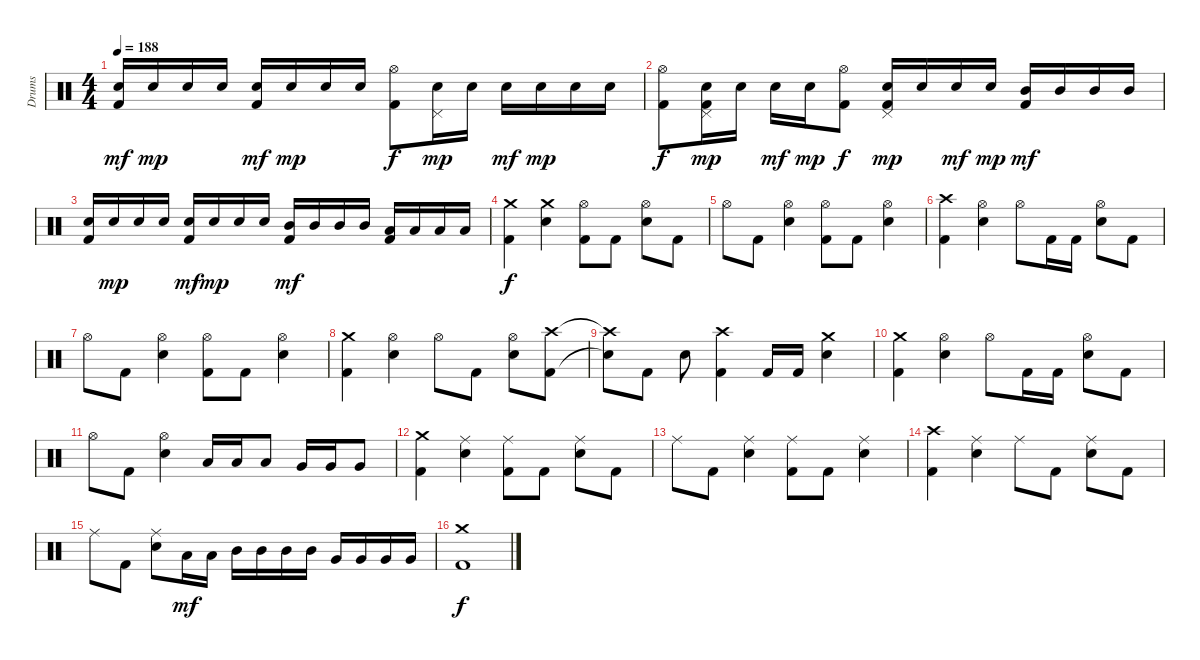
\track ("Drums" "Drums") {instrument percussion}
\staff {score}
\articulation defaults
\ts (4 4)
\tempo 188
\clef neutral
\ks c
("Electric Snare (hit)" "Kick (hit) 2").16{dy mf} "Electric Snare (hit)".16{dy mp} "Electric Snare (hit)".16 "Electric Snare (hit)".16 ("Electric Snare (hit)" "Kick (hit) 2").16{dy mf} "Electric Snare (hit)".16{dy mp} "Electric Snare (hit)".16 "Electric Snare (hit)".16 ("Hi-Hat (open)" "Kick (hit) 2").8{dy f} ("Pedal Hi-Hat (hit)" "Electric Snare (hit)").16{dy mp} "Electric Snare (hit)".16 "Electric Snare (hit)".16{dy mf} "Electric Snare (hit)".16{dy mp} "Electric Snare (hit)".16 "Electric Snare (hit)".16 |
("Hi-Hat (open)" "Kick (hit) 2").8{dy f} ("Pedal Hi-Hat (hit)" "Electric Snare (hit)" "Kick (hit) 2").16{dy mp} "Electric Snare (hit)".16 "Electric Snare (hit)".16{dy mf} "Electric Snare (hit)".16{dy mp} ("Hi-Hat (open)" "Kick (hit) 2").8{dy f} ("Pedal Hi-Hat (hit)" "Electric Snare (hit)" "Kick (hit) 2").16{dy mp} "Electric Snare (hit)".16 "Electric Snare (hit)".16{dy mf} "Electric Snare (hit)".16{dy mp} ("Mid Tom (hit)" "Kick (hit) 2").16{dy mf} "Mid Tom (hit)".16 "Mid Tom (hit)".16 "Mid Tom (hit)".16 |
("Electric Snare (hit)" "Kick (hit) 2").16 "Electric Snare (hit)".16{dy mp} "Electric Snare (hit)".16 "Electric Snare (hit)".16 ("Electric Snare (hit)" "Kick (hit) 2").16{dy mf} "Electric Snare (hit)".16{dy mp} "Electric Snare (hit)".16 "Electric Snare (hit)".16 ("Mid Tom (hit)" "Kick (hit) 2").16{dy mf} "Mid Tom (hit)".16 "Mid Tom (hit)".16 "Mid Tom (hit)".16 ("Low Tom (hit)" "Kick (hit) 2").16 "Low Tom (hit)".16 "Low Tom (hit)".16 "Low Tom (hit)".16 |
("Crash medium (hit)" "Kick (hit) 2").4{dy f} ("Crash medium (hit)" "Electric Snare (hit)").4 ("Hi-Hat (open)" "Kick (hit) 2").8 "Kick (hit) 2".8 ("Hi-Hat (open)" "Electric Snare (hit)").8 "Kick (hit) 2".8 |
"Hi-Hat (open)".8 "Kick (hit) 2".8 ("Hi-Hat (open)" "Electric Snare (hit)").4 ("Hi-Hat (open)" "Kick (hit) 2").8 "Kick (hit) 2".8 ("Hi-Hat (open)" "Electric Snare (hit)").4 |
("Crash high (hit)" "Kick (hit) 2").4 ("Hi-Hat (open)" "Electric Snare (hit)").4 "Hi-Hat (open)".8 "Kick (hit) 2".16 "Kick (hit) 2".16 ("Hi-Hat (open)" "Electric Snare (hit)").8 "Kick (hit) 2".8 |
"Hi-Hat (open)".8 "Kick (hit) 2".8 ("Hi-Hat (open)" "Electric Snare (hit)").4 ("Hi-Hat (open)" "Kick (hit) 2").8 "Kick (hit) 2".8 ("Hi-Hat (open)" "Electric Snare (hit)").4 |
("Crash medium (hit)" "Kick (hit) 2").4 ("Hi-Hat (open)" "Electric Snare (hit)").4 "Hi-Hat (open)".8 "Kick (hit) 2".8 ("Hi-Hat (open)" "Electric Snare (hit)").8 ("Crash high (hit)" "Kick (hit) 2").8 |
("Crash high (hit)"{t} "Snare (hit)"{t}).8 "Kick (hit) 2".8 "Electric Snare (hit)".8 ("Crash high (hit)" "Kick (hit) 2").4 "Kick (hit) 2".16 "Kick (hit) 2".16 ("Crash medium (hit)" "Electric Snare (hit)").4 |
("Crash medium (hit)" "Kick (hit) 2").4 ("Hi-Hat (open)" "Electric Snare (hit)").4 "Hi-Hat (open)".8 "Kick (hit) 2".16 "Kick (hit) 2".16 ("Hi-Hat (open)" "Electric Snare (hit)").8 "Kick (hit) 2".8 |
"Hi-Hat (open)".8 "Kick (hit) 2".8 ("Hi-Hat (open)" "Electric Snare (hit)").4 "Low Tom (hit)".16 "Low Tom (hit)".16 "Low Tom (hit)".8 "Very Low Tom (hit)".16 "Very Low Tom (hit)".16 "Very Low Tom (hit)".8 |
("Crash medium (hit)" "Kick (hit) 2").4 ("Ride (middle)" "Electric Snare (hit)").4 ("Ride (middle)" "Kick (hit) 2").8 "Kick (hit) 2".8 ("Ride (middle)" "Electric Snare (hit)").8 "Kick (hit) 2".8 |
"Ride (middle)".8 "Kick (hit) 2".8 ("Ride (middle)" "Electric Snare (hit)").4 ("Ride (middle)" "Kick (hit) 2").8 "Kick (hit) 2".8 ("Ride (middle)" "Electric Snare (hit)").4 |
("Crash high (hit)" "Kick (hit) 2").4 ("Ride (middle)" "Electric Snare (hit)").4 "Ride (middle)".8 "Kick (hit) 2".8 ("Ride (middle)" "Electric Snare (hit)").8 "Kick (hit) 2".8 |
"Ride (middle)".8 "Kick (hit) 2".8 ("Ride (middle)" "Electric Snare (hit)").8 "Low Tom (hit)".16{dy mf} "Low Tom (hit)".16 "Mid Tom (hit)".16 "Mid Tom (hit)".16 "Mid Tom (hit)".16 "Mid Tom (hit)".16 "Very Low Tom (hit)".16 "Very Low Tom (hit)".16 "Very Low Tom (hit)".16 "Very Low Tom (hit)".16 |
("Crash medium (hit)" "Kick (hit) 2").1{dy f}
